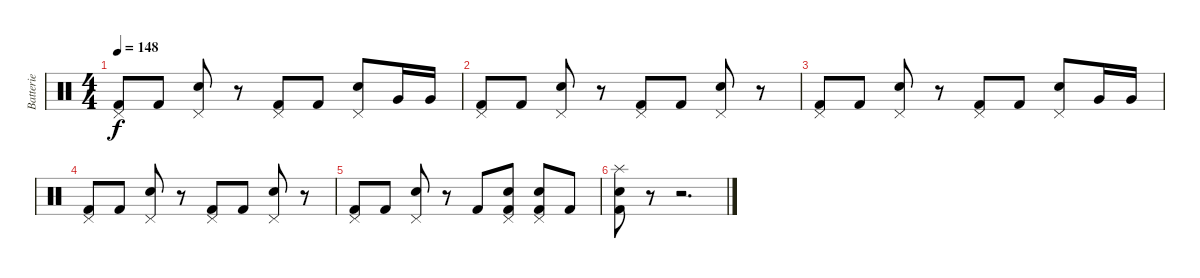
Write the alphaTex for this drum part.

\track ("Batterie" "Batterie") {instrument percussion}
\staff {score}
\articulation defaults
\ts (4 4)
\tempo 148
\clef neutral
\ks c
("Pedal Hi-Hat (hit)" "Kick (hit) 2").8{dy f} "Kick (hit) 2".8 ("Pedal Hi-Hat (hit)" "Electric Snare (hit)").8 r.8 ("Pedal Hi-Hat (hit)" "Kick (hit) 2").8 "Kick (hit) 2".8 ("Pedal Hi-Hat (hit)" "Electric Snare (hit)").8 "Very Low Tom (hit)".16 "Very Low Tom (hit)".16 |
("Pedal Hi-Hat (hit)" "Kick (hit) 2").8 "Kick (hit) 2".8 ("Pedal Hi-Hat (hit)" "Electric Snare (hit)").8 r.8 ("Pedal Hi-Hat (hit)" "Kick (hit) 2").8 "Kick (hit) 2".8 ("Pedal Hi-Hat (hit)" "Electric Snare (hit)").8 r.8 |
("Pedal Hi-Hat (hit)" "Kick (hit) 2").8 "Kick (hit) 2".8 ("Pedal Hi-Hat (hit)" "Electric Snare (hit)").8 r.8 ("Pedal Hi-Hat (hit)" "Kick (hit) 2").8 "Kick (hit) 2".8 ("Pedal Hi-Hat (hit)" "Electric Snare (hit)").8 "Very Low Tom (hit)".16 "Very Low Tom (hit)".16 |
("Pedal Hi-Hat (hit)" "Kick (hit) 2").8 "Kick (hit) 2".8 ("Pedal Hi-Hat (hit)" "Electric Snare (hit)").8 r.8 ("Pedal Hi-Hat (hit)" "Kick (hit) 2").8 "Kick (hit) 2".8 ("Pedal Hi-Hat (hit)" "Electric Snare (hit)").8 r.8 |
("Pedal Hi-Hat (hit)" "Kick (hit) 2").8 "Kick (hit) 2".8 ("Pedal Hi-Hat (hit)" "Electric Snare (hit)").8 r.8 "Kick (hit) 2".8 ("Pedal Hi-Hat (hit)" "Electric Snare (hit)" "Kick (hit) 2").8 ("Pedal Hi-Hat (hit)" "Electric Snare (hit)" "Kick (hit) 2").8 "Kick (hit) 2".8 |
("Splash (hit)" "Electric Snare (hit)" "Kick (hit) 2").8 r.8 r.2{d}
